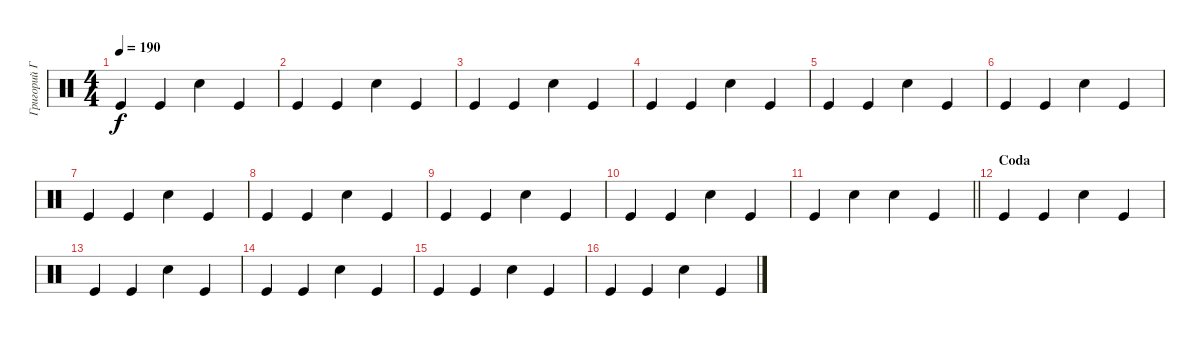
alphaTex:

\track ("Григорий Габерман" "Григорий Г") {instrument percussion}
\staff {score}
\articulation defaults
\ts (4 4)
\tempo 190
\clef neutral
\ks c "Kick (hit)".4{dy f} "Kick (hit)".4 "Snare (hit) 2".4 "Kick (hit)".4
|
"Kick (hit)".4 "Kick (hit)".4 "Snare (hit) 2".4 "Kick (hit)".4 |
"Kick (hit)".4 "Kick (hit)".4 "Snare (hit) 2".4 "Kick (hit)".4 |
"Kick (hit)".4 "Kick (hit)".4 "Snare (hit) 2".4 "Kick (hit)".4 |
"Kick (hit)".4 "Kick (hit)".4 "Snare (hit) 2".4 "Kick (hit)".4 |
"Kick (hit)".4 "Kick (hit)".4 "Snare (hit) 2".4 "Kick (hit)".4 |
"Kick (hit)".4 "Kick (hit)".4 "Snare (hit) 2".4 "Kick (hit)".4 |
"Kick (hit)".4 "Kick (hit)".4 "Snare (hit) 2".4 "Kick (hit)".4 |
"Kick (hit)".4 "Kick (hit)".4 "Snare (hit) 2".4 "Kick (hit)".4 |
"Kick (hit)".4 "Kick (hit)".4 "Snare (hit) 2".4 "Kick (hit)".4 |
\barLineRight lightlight "Kick (hit)".4 "Snare (hit) 2".4 "Snare (hit) 2".4 "Kick (hit)".4
|
\section ("" "Coda ")
"Kick (hit)".4 "Kick (hit)".4 "Snare (hit) 2".4 "Kick (hit)".4 |
"Kick (hit)".4 "Kick (hit)".4 "Snare (hit) 2".4 "Kick (hit)".4 |
"Kick (hit)".4 "Kick (hit)".4 "Snare (hit) 2".4 "Kick (hit)".4 |
"Kick (hit)".4 "Kick (hit)".4 "Snare (hit) 2".4 "Kick (hit)".4 |
"Kick (hit)".4 "Kick (hit)".4 "Snare (hit) 2".4 "Kick (hit)".4
